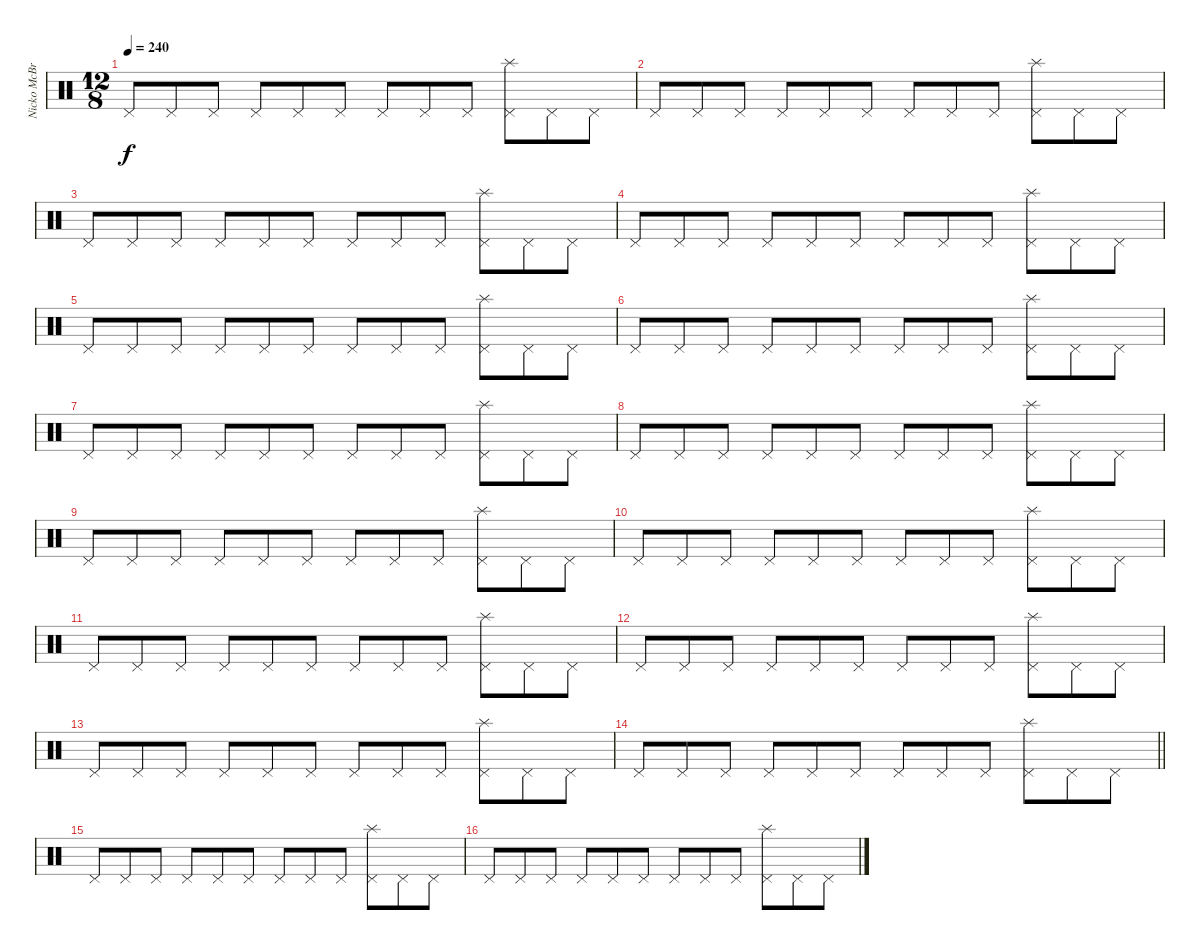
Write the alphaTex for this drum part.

\track ("Nicko McBrian (Drums)" "Nicko McBr") {instrument percussion}
\staff {score}
\articulation defaults
\ts (12 8)
\tempo 240
\clef neutral
\ks c "Pedal Hi-Hat (hit)".8{dy f} "Pedal Hi-Hat (hit)".8 "Pedal Hi-Hat (hit)".8 "Pedal Hi-Hat (hit)".8 "Pedal Hi-Hat (hit)".8 "Pedal Hi-Hat (hit)".8 "Pedal Hi-Hat (hit)".8 "Pedal Hi-Hat (hit)".8 "Pedal Hi-Hat (hit)".8
("Pedal Hi-Hat (hit)" "Splash (hit)").8 "Pedal Hi-Hat (hit)".8 "Pedal Hi-Hat (hit)".8 |
"Pedal Hi-Hat (hit)".8 "Pedal Hi-Hat (hit)".8 "Pedal Hi-Hat (hit)".8 "Pedal Hi-Hat (hit)".8 "Pedal Hi-Hat (hit)".8 "Pedal Hi-Hat (hit)".8 "Pedal Hi-Hat (hit)".8 "Pedal Hi-Hat (hit)".8 "Pedal Hi-Hat (hit)".8 ("Pedal Hi-Hat (hit)" "Splash (hit)").8 "Pedal Hi-Hat (hit)".8 "Pedal Hi-Hat (hit)".8 |
"Pedal Hi-Hat (hit)".8 "Pedal Hi-Hat (hit)".8 "Pedal Hi-Hat (hit)".8 "Pedal Hi-Hat (hit)".8 "Pedal Hi-Hat (hit)".8 "Pedal Hi-Hat (hit)".8 "Pedal Hi-Hat (hit)".8 "Pedal Hi-Hat (hit)".8 "Pedal Hi-Hat (hit)".8 ("Pedal Hi-Hat (hit)" "Splash (hit)").8 "Pedal Hi-Hat (hit)".8 "Pedal Hi-Hat (hit)".8 |
"Pedal Hi-Hat (hit)".8 "Pedal Hi-Hat (hit)".8 "Pedal Hi-Hat (hit)".8 "Pedal Hi-Hat (hit)".8 "Pedal Hi-Hat (hit)".8 "Pedal Hi-Hat (hit)".8 "Pedal Hi-Hat (hit)".8 "Pedal Hi-Hat (hit)".8 "Pedal Hi-Hat (hit)".8 ("Pedal Hi-Hat (hit)" "Splash (hit)").8 "Pedal Hi-Hat (hit)".8 "Pedal Hi-Hat (hit)".8 |
"Pedal Hi-Hat (hit)".8 "Pedal Hi-Hat (hit)".8 "Pedal Hi-Hat (hit)".8 "Pedal Hi-Hat (hit)".8 "Pedal Hi-Hat (hit)".8 "Pedal Hi-Hat (hit)".8 "Pedal Hi-Hat (hit)".8 "Pedal Hi-Hat (hit)".8 "Pedal Hi-Hat (hit)".8 ("Pedal Hi-Hat (hit)" "Splash (hit)").8 "Pedal Hi-Hat (hit)".8 "Pedal Hi-Hat (hit)".8 |
"Pedal Hi-Hat (hit)".8 "Pedal Hi-Hat (hit)".8 "Pedal Hi-Hat (hit)".8 "Pedal Hi-Hat (hit)".8 "Pedal Hi-Hat (hit)".8 "Pedal Hi-Hat (hit)".8 "Pedal Hi-Hat (hit)".8 "Pedal Hi-Hat (hit)".8 "Pedal Hi-Hat (hit)".8 ("Pedal Hi-Hat (hit)" "Splash (hit)").8 "Pedal Hi-Hat (hit)".8 "Pedal Hi-Hat (hit)".8 |
"Pedal Hi-Hat (hit)".8 "Pedal Hi-Hat (hit)".8 "Pedal Hi-Hat (hit)".8 "Pedal Hi-Hat (hit)".8 "Pedal Hi-Hat (hit)".8 "Pedal Hi-Hat (hit)".8 "Pedal Hi-Hat (hit)".8 "Pedal Hi-Hat (hit)".8 "Pedal Hi-Hat (hit)".8 ("Pedal Hi-Hat (hit)" "Splash (hit)").8 "Pedal Hi-Hat (hit)".8 "Pedal Hi-Hat (hit)".8 |
"Pedal Hi-Hat (hit)".8 "Pedal Hi-Hat (hit)".8 "Pedal Hi-Hat (hit)".8 "Pedal Hi-Hat (hit)".8 "Pedal Hi-Hat (hit)".8 "Pedal Hi-Hat (hit)".8 "Pedal Hi-Hat (hit)".8 "Pedal Hi-Hat (hit)".8 "Pedal Hi-Hat (hit)".8 ("Pedal Hi-Hat (hit)" "Splash (hit)").8 "Pedal Hi-Hat (hit)".8 "Pedal Hi-Hat (hit)".8 |
"Pedal Hi-Hat (hit)".8 "Pedal Hi-Hat (hit)".8 "Pedal Hi-Hat (hit)".8 "Pedal Hi-Hat (hit)".8 "Pedal Hi-Hat (hit)".8 "Pedal Hi-Hat (hit)".8 "Pedal Hi-Hat (hit)".8 "Pedal Hi-Hat (hit)".8 "Pedal Hi-Hat (hit)".8 ("Pedal Hi-Hat (hit)" "Splash (hit)").8 "Pedal Hi-Hat (hit)".8 "Pedal Hi-Hat (hit)".8 |
"Pedal Hi-Hat (hit)".8 "Pedal Hi-Hat (hit)".8 "Pedal Hi-Hat (hit)".8 "Pedal Hi-Hat (hit)".8 "Pedal Hi-Hat (hit)".8 "Pedal Hi-Hat (hit)".8 "Pedal Hi-Hat (hit)".8 "Pedal Hi-Hat (hit)".8 "Pedal Hi-Hat (hit)".8 ("Pedal Hi-Hat (hit)" "Splash (hit)").8 "Pedal Hi-Hat (hit)".8 "Pedal Hi-Hat (hit)".8 |
"Pedal Hi-Hat (hit)".8 "Pedal Hi-Hat (hit)".8 "Pedal Hi-Hat (hit)".8 "Pedal Hi-Hat (hit)".8 "Pedal Hi-Hat (hit)".8 "Pedal Hi-Hat (hit)".8 "Pedal Hi-Hat (hit)".8 "Pedal Hi-Hat (hit)".8 "Pedal Hi-Hat (hit)".8 ("Pedal Hi-Hat (hit)" "Splash (hit)").8 "Pedal Hi-Hat (hit)".8 "Pedal Hi-Hat (hit)".8 |
"Pedal Hi-Hat (hit)".8 "Pedal Hi-Hat (hit)".8 "Pedal Hi-Hat (hit)".8 "Pedal Hi-Hat (hit)".8 "Pedal Hi-Hat (hit)".8 "Pedal Hi-Hat (hit)".8 "Pedal Hi-Hat (hit)".8 "Pedal Hi-Hat (hit)".8 "Pedal Hi-Hat (hit)".8 ("Pedal Hi-Hat (hit)" "Splash (hit)").8 "Pedal Hi-Hat (hit)".8 "Pedal Hi-Hat (hit)".8 |
"Pedal Hi-Hat (hit)".8 "Pedal Hi-Hat (hit)".8 "Pedal Hi-Hat (hit)".8 "Pedal Hi-Hat (hit)".8 "Pedal Hi-Hat (hit)".8 "Pedal Hi-Hat (hit)".8 "Pedal Hi-Hat (hit)".8 "Pedal Hi-Hat (hit)".8 "Pedal Hi-Hat (hit)".8 ("Pedal Hi-Hat (hit)" "Splash (hit)").8 "Pedal Hi-Hat (hit)".8 "Pedal Hi-Hat (hit)".8 |
\barLineRight lightlight "Pedal Hi-Hat (hit)".8 "Pedal Hi-Hat (hit)".8 "Pedal Hi-Hat (hit)".8 "Pedal Hi-Hat (hit)".8 "Pedal Hi-Hat (hit)".8 "Pedal Hi-Hat (hit)".8 "Pedal Hi-Hat (hit)".8 "Pedal Hi-Hat (hit)".8 "Pedal Hi-Hat (hit)".8
("Pedal Hi-Hat (hit)" "Splash (hit)").8 "Pedal Hi-Hat (hit)".8 "Pedal Hi-Hat (hit)".8 |
"Pedal Hi-Hat (hit)".8 "Pedal Hi-Hat (hit)".8 "Pedal Hi-Hat (hit)".8 "Pedal Hi-Hat (hit)".8 "Pedal Hi-Hat (hit)".8 "Pedal Hi-Hat (hit)".8 "Pedal Hi-Hat (hit)".8 "Pedal Hi-Hat (hit)".8 "Pedal Hi-Hat (hit)".8 ("Pedal Hi-Hat (hit)" "Splash (hit)").8 "Pedal Hi-Hat (hit)".8 "Pedal Hi-Hat (hit)".8 |
"Pedal Hi-Hat (hit)".8 "Pedal Hi-Hat (hit)".8 "Pedal Hi-Hat (hit)".8 "Pedal Hi-Hat (hit)".8 "Pedal Hi-Hat (hit)".8 "Pedal Hi-Hat (hit)".8 "Pedal Hi-Hat (hit)".8 "Pedal Hi-Hat (hit)".8 "Pedal Hi-Hat (hit)".8 ("Pedal Hi-Hat (hit)" "Splash (hit)").8 "Pedal Hi-Hat (hit)".8 "Pedal Hi-Hat (hit)".8
